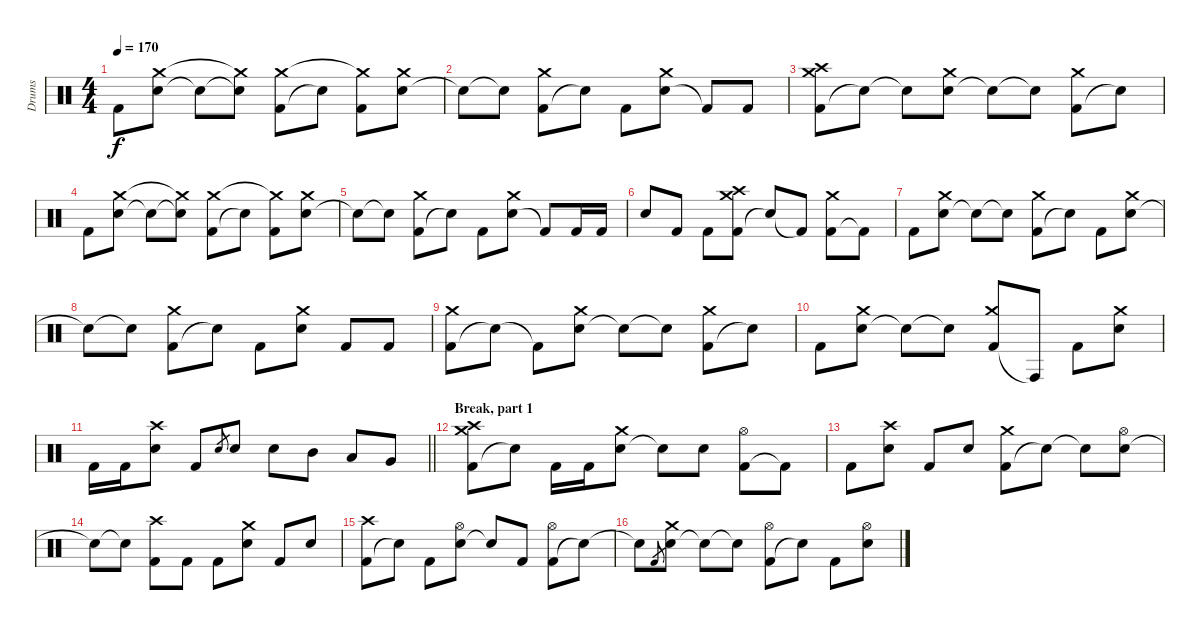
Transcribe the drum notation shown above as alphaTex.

\track ("Drums" "Drums") {instrument percussion}
\staff {score}
\articulation defaults
\ts (4 4)
\tempo 170
\clef neutral
\ks c "Kick (hit) 2".8{dy f}
("Electric Snare (hit)" "Crash medium (hit)").8 "Snare (hit)"{t}.8 ("Snare (hit)"{t} "Crash medium (hit)"{t}).8 ("Kick (hit) 2" "Crash medium (hit)").8 "Snare (hit)"{t}.8 ("Kick (hit) 2" "Crash medium (hit)"{t}).8 ("Electric Snare (hit)" "Crash medium (hit)").8 |
"Snare (hit)"{t}.8 "Snare (hit)"{t}.8 ("Kick (hit) 2" "Crash medium (hit)").8 "Snare (hit)"{t}.8 "Kick (hit) 2".8 ("Electric Snare (hit)" "Crash medium (hit)").8 "Kick (hit) 2"{t}.8 "Kick (hit) 2".8 |
("Kick (hit) 2" "Crash medium (hit)" "Crash high (hit)").8 "Snare (hit)"{t}.8 "Snare (hit)"{t}.8 ("Electric Snare (hit)" "Crash medium (hit)").8 "Snare (hit)"{t}.8 "Snare (hit)"{t}.8 ("Kick (hit) 2" "Crash medium (hit)").8 "Snare (hit)"{t}.8 |
"Kick (hit) 2".8 ("Electric Snare (hit)" "Crash medium (hit)").8 "Snare (hit)"{t}.8 ("Snare (hit)"{t} "Crash medium (hit)"{t}).8 ("Kick (hit) 2" "Crash medium (hit)").8 "Snare (hit)"{t}.8 ("Kick (hit) 2" "Crash medium (hit)"{t}).8 ("Electric Snare (hit)" "Crash medium (hit)").8 |
"Snare (hit)"{t}.8 "Snare (hit)"{t}.8 ("Kick (hit) 2" "Crash medium (hit)").8 "Snare (hit)"{t}.8 "Kick (hit) 2".8 ("Electric Snare (hit)" "Crash medium (hit)").8 "Kick (hit) 2"{t}.8 "Kick (hit) 2".16 "Kick (hit) 2".16 |
"Electric Snare (hit)".8 "Kick (hit) 2".8 "Kick (hit) 2".8 ("Kick (hit) 2" "Crash medium (hit)" "Crash high (hit)").8 "Snare (hit)"{t}.8 "Kick (hit) 2"{t}.8 ("Kick (hit) 2" "Crash medium (hit)").8 "Kick (hit) 2"{t}.8 |
"Kick (hit) 2".8 ("Electric Snare (hit)" "Crash medium (hit)").8 "Snare (hit)"{t}.8 "Snare (hit)"{t}.8 ("Kick (hit) 2" "Crash medium (hit)").8 "Snare (hit)"{t}.8 "Kick (hit) 2".8 ("Electric Snare (hit)" "Crash medium (hit)").8 |
"Snare (hit)"{t}.8 "Snare (hit)"{t}.8 ("Kick (hit) 2" "Crash medium (hit)").8 "Electric Snare (hit)"{t}.8 "Kick (hit) 2".8 ("Electric Snare (hit)" "Crash medium (hit)").8 "Kick (hit) 2".8 "Kick (hit) 2".8 |
("Kick (hit) 2" "Crash medium (hit)").8 "Snare (hit)"{t}.8 "Kick (hit) 2"{t}.8 ("Electric Snare (hit)" "Crash medium (hit)").8 "Snare (hit)"{t}.8 "Snare (hit)"{t}.8 ("Kick (hit) 2" "Crash medium (hit)").8 "Snare (hit)"{t}.8 |
"Kick (hit) 2".8 ("Electric Snare (hit)" "Crash medium (hit)").8 "Snare (hit)"{t}.8 "Snare (hit)"{t}.8 ("Kick (hit) 2" "Crash medium (hit)").8 "Conga high (hit)"{t}.8 "Kick (hit) 2".8 ("Electric Snare (hit)" "Crash medium (hit)").8 |
\barLineRight lightlight "Kick (hit) 2".16 "Kick (hit) 2".16
("Electric Snare (hit)" "Crash high (hit)").8 "Kick (hit) 2".8 "Electric Snare (hit)".8{gr} "Electric Snare (hit)".8 "Electric Snare (hit)".8 "Mid Tom (hit)".8 "Low Tom (hit)".8 "Very Low Tom (hit)".8 |
\section ("" "Break, part 1")
("Kick (hit) 2" "Crash medium (hit)" "Crash high (hit)").8 "Snare (hit)"{t}.8 "Kick (hit) 2".16 "Kick (hit) 2".16 ("Electric Snare (hit)" "Crash medium (hit)").8 "Snare (hit)"{t}.8 "Electric Snare (hit)".8 ("Kick (hit) 2" "Hi-Hat (open)").8 "Kick (hit) 2"{t}.8 |
"Kick (hit) 2".8 ("Electric Snare (hit)" "Crash high (hit)").8 "Kick (hit) 2".8 "Electric Snare (hit)".8 ("Kick (hit) 2" "Crash medium (hit)").8 "Snare (hit)"{t}.8 "Electric Snare (hit)"{t}.8 ("Electric Snare (hit)" "Hi-Hat (open)").8 |
"Snare (hit)"{t}.8 "Snare (hit)"{t}.8 ("Kick (hit) 2" "Crash high (hit)").8 "Kick (hit) 2".8 "Kick (hit) 2".8 ("Electric Snare (hit)" "Crash medium (hit)").8 "Kick (hit) 2".8 "Electric Snare (hit)".8 |
("Kick (hit) 2" "Crash high (hit)").8 "Snare (hit)"{t}.8 "Kick (hit) 2".8 ("Electric Snare (hit)" "Hi-Hat (open)").8 "Snare (hit)"{t}.8 "Kick (hit) 2".8 ("Kick (hit) 2" "Hi-Hat (open)").8 "Snare (hit)"{t}.8 |
"Electric Snare (hit)"{t}.8 "Kick (hit) 2".8{gr} ("Electric Snare (hit)" "Crash medium (hit)").8 "Snare (hit)"{t}.8 "Snare (hit)"{t}.8 ("Kick (hit) 2" "Hi-Hat (open)").8 "Snare (hit)"{t}.8 "Kick (hit) 2".8 ("Electric Snare (hit)" "Hi-Hat (open)").8
